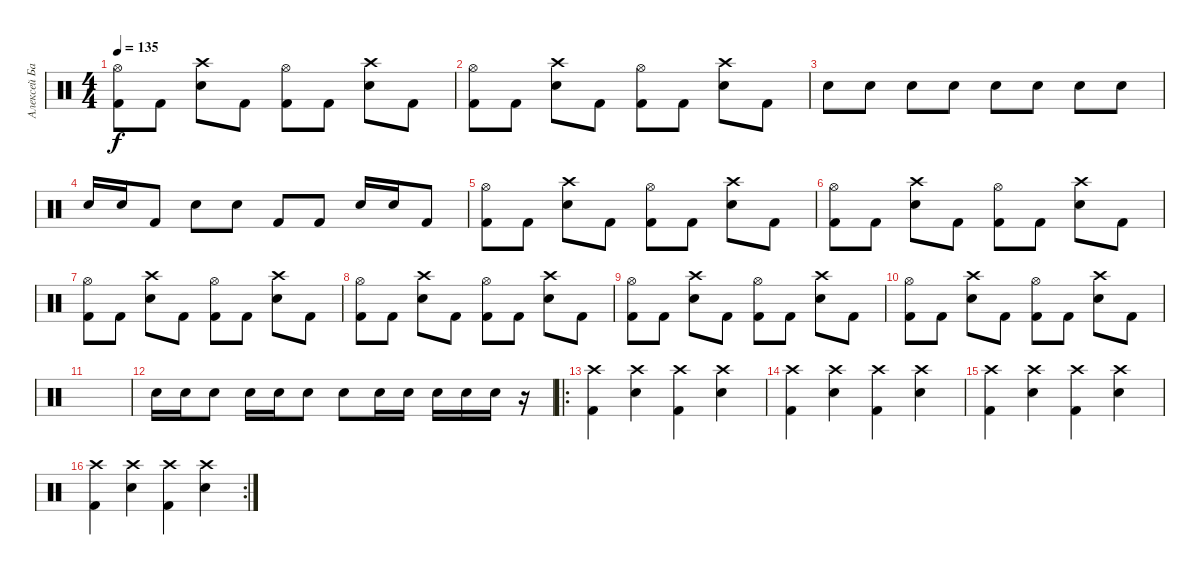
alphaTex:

\track ("Алексей Барзилович" "Алексей Ба") {instrument percussion}
\staff {score}
\articulation defaults
\ts (4 4)
\tempo 135
\clef neutral
\ks c
("Kick (hit) 2" "Hi-Hat (open)").8{dy f} "Kick (hit) 2".8 ("Electric Snare (hit)" "Crash high (hit)").8 "Kick (hit) 2".8 ("Kick (hit) 2" "Hi-Hat (open)").8 "Kick (hit) 2".8 ("Electric Snare (hit)" "Crash high (hit)").8 "Kick (hit) 2".8 |
("Kick (hit) 2" "Hi-Hat (open)").8 "Kick (hit) 2".8 ("Electric Snare (hit)" "Crash high (hit)").8 "Kick (hit) 2".8 ("Kick (hit) 2" "Hi-Hat (open)").8 "Kick (hit) 2".8 ("Electric Snare (hit)" "Crash high (hit)").8 "Kick (hit) 2".8 |
"Electric Snare (hit)".8 "Electric Snare (hit)".8 "Electric Snare (hit)".8 "Electric Snare (hit)".8 "Electric Snare (hit)".8 "Electric Snare (hit)".8 "Electric Snare (hit)".8 "Electric Snare (hit)".8 |
"Electric Snare (hit)".16 "Electric Snare (hit)".16 "Kick (hit) 2".8 "Electric Snare (hit)".8 "Electric Snare (hit)".8 "Kick (hit) 2".8 "Kick (hit) 2".8 "Electric Snare (hit)".16 "Electric Snare (hit)".16 "Kick (hit) 2".8 |
("Kick (hit) 2" "Hi-Hat (open)").8 "Kick (hit) 2".8 ("Electric Snare (hit)" "Crash high (hit)").8 "Kick (hit) 2".8 ("Kick (hit) 2" "Hi-Hat (open)").8 "Kick (hit) 2".8 ("Electric Snare (hit)" "Crash high (hit)").8 "Kick (hit) 2".8 |
("Kick (hit) 2" "Hi-Hat (open)").8 "Kick (hit) 2".8 ("Electric Snare (hit)" "Crash high (hit)").8 "Kick (hit) 2".8 ("Kick (hit) 2" "Hi-Hat (open)").8 "Kick (hit) 2".8 ("Electric Snare (hit)" "Crash high (hit)").8 "Kick (hit) 2".8 |
("Kick (hit) 2" "Hi-Hat (open)").8 "Kick (hit) 2".8 ("Electric Snare (hit)" "Crash high (hit)").8 "Kick (hit) 2".8 ("Kick (hit) 2" "Hi-Hat (open)").8 "Kick (hit) 2".8 ("Electric Snare (hit)" "Crash high (hit)").8 "Kick (hit) 2".8 |
("Kick (hit) 2" "Hi-Hat (open)").8 "Kick (hit) 2".8 ("Electric Snare (hit)" "Crash high (hit)").8 "Kick (hit) 2".8 ("Kick (hit) 2" "Hi-Hat (open)").8 "Kick (hit) 2".8 ("Electric Snare (hit)" "Crash high (hit)").8 "Kick (hit) 2".8 |
("Kick (hit) 2" "Hi-Hat (open)").8 "Kick (hit) 2".8 ("Electric Snare (hit)" "Crash high (hit)").8 "Kick (hit) 2".8 ("Kick (hit) 2" "Hi-Hat (open)").8 "Kick (hit) 2".8 ("Electric Snare (hit)" "Crash high (hit)").8 "Kick (hit) 2".8 |
("Kick (hit) 2" "Hi-Hat (open)").8 "Kick (hit) 2".8 ("Electric Snare (hit)" "Crash high (hit)").8 "Kick (hit) 2".8 ("Kick (hit) 2" "Hi-Hat (open)").8 "Kick (hit) 2".8 ("Electric Snare (hit)" "Crash high (hit)").8 "Kick (hit) 2".8 |
|
"Electric Snare (hit)".16 "Electric Snare (hit)".16 "Electric Snare (hit)".8 "Electric Snare (hit)".16 "Electric Snare (hit)".16 "Electric Snare (hit)".8 "Electric Snare (hit)".8 "Electric Snare (hit)".16 "Electric Snare (hit)".16 "Electric Snare (hit)".16 "Electric Snare (hit)".16 "Electric Snare (hit)".16 r.16 |
\ro
("Crash high (hit)" "Kick (hit) 2").4 ("Crash high (hit)" "Electric Snare (hit)").4 ("Crash high (hit)" "Kick (hit) 2").4 ("Crash high (hit)" "Electric Snare (hit)").4 |
("Crash high (hit)" "Kick (hit) 2").4 ("Crash high (hit)" "Electric Snare (hit)").4 ("Crash high (hit)" "Kick (hit) 2").4 ("Crash high (hit)" "Electric Snare (hit)").4 |
("Crash high (hit)" "Kick (hit) 2").4 ("Crash high (hit)" "Electric Snare (hit)").4 ("Crash high (hit)" "Kick (hit) 2").4 ("Crash high (hit)" "Electric Snare (hit)").4 |
\rc 2
("Crash high (hit)" "Kick (hit) 2").4 ("Crash high (hit)" "Electric Snare (hit)").4 ("Crash high (hit)" "Kick (hit) 2").4 ("Crash high (hit)" "Electric Snare (hit)").4
